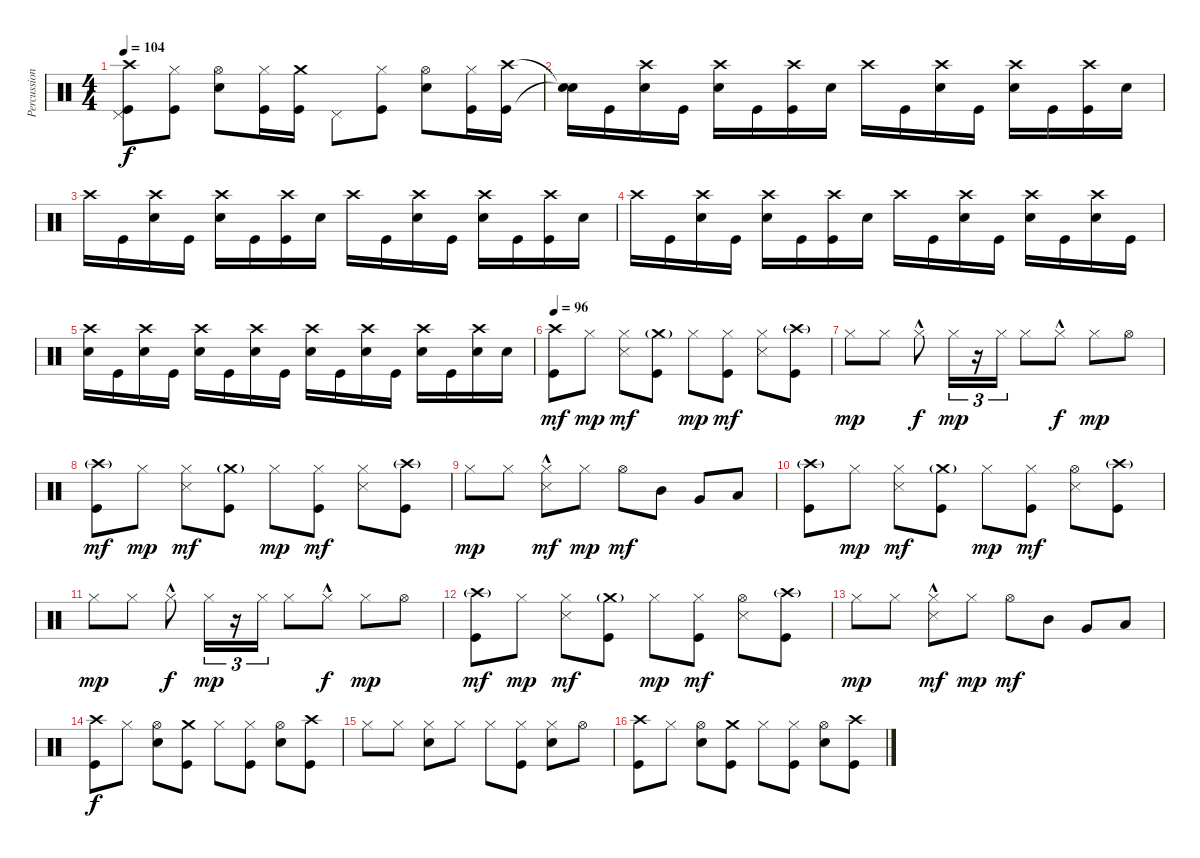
\track ("Percussion" "Percussion") {instrument percussion}
\staff {score}
\articulation defaults
\ts (4 4)
\tempo 104
\clef neutral
\ks c
("Crash high (hit)"{t} "Pedal Hi-Hat (hit)" "Kick (hit)"{t}).8{dy f} ("Hi-Hat (closed)" "Kick (hit)").8 ("Hi-Hat (open)" "Snare (hit) 2").8 ("Hi-Hat (closed)" "Kick (hit)").16 ("Crash medium (hit)" "Kick (hit)").16 "Pedal Hi-Hat (hit)".8 ("Hi-Hat (closed)" "Kick (hit)").8 ("Hi-Hat (open)" "Snare (hit) 2").8 ("Hi-Hat (closed)" "Kick (hit)").16 ("Crash high (hit)" "Kick (hit)").16 |
("Snare (hit)"{t} "Snare (hit)"{t}).16 "Kick (hit)".16 ("Crash high (hit)" "Snare (hit) 2").16 "Kick (hit)".16 ("Crash high (hit)" "Snare (hit) 2").16 "Kick (hit)".16 ("Crash high (hit)" "Kick (hit)").16 "Snare (hit) 2".16 "Crash high (hit)".16 "Kick (hit)".16 ("Crash high (hit)" "Snare (hit) 2").16 "Kick (hit)".16 ("Crash high (hit)" "Snare (hit) 2").16 "Kick (hit)".16 ("Crash high (hit)" "Kick (hit)").16 "Snare (hit) 2".16 |
"Crash high (hit)".16 "Kick (hit)".16 ("Crash high (hit)" "Snare (hit) 2").16 "Kick (hit)".16 ("Crash high (hit)" "Snare (hit) 2").16 "Kick (hit)".16 ("Crash high (hit)" "Kick (hit)").16 "Snare (hit) 2".16 "Crash high (hit)".16 "Kick (hit)".16 ("Crash high (hit)" "Snare (hit) 2").16 "Kick (hit)".16 ("Crash high (hit)" "Snare (hit) 2").16 "Kick (hit)".16 ("Crash high (hit)" "Kick (hit)").16 "Snare (hit) 2".16 |
"Crash high (hit)".16 "Kick (hit)".16 ("Crash high (hit)" "Snare (hit) 2").16 "Kick (hit)".16 ("Crash high (hit)" "Snare (hit) 2").16 "Kick (hit)".16 ("Crash high (hit)" "Kick (hit)").16 "Snare (hit) 2".16 "Crash high (hit)".16 "Kick (hit)".16 ("Crash high (hit)" "Snare (hit) 2").16 "Kick (hit)".16 ("Crash high (hit)" "Snare (hit) 2").16 "Kick (hit)".16 ("Crash high (hit)" "Snare (hit) 2").16 "Kick (hit)".16 |
("Crash high (hit)" "Snare (hit) 2").16 "Kick (hit)".16 ("Crash high (hit)" "Snare (hit) 2").16 "Kick (hit)".16 ("Crash high (hit)" "Snare (hit) 2").16 "Kick (hit)".16 ("Crash high (hit)" "Snare (hit) 2").16 "Kick (hit)".16 ("Crash high (hit)" "Snare (hit) 2").16 "Kick (hit)".16 ("Crash high (hit)" "Snare (hit) 2").16 "Kick (hit)".16 ("Crash high (hit)" "Snare (hit) 2").16 "Kick (hit)".16 ("Crash high (hit)" "Snare (hit) 2").16 "Snare (hit) 2".16 |
\tempo 96
("Crash high (hit)" "Kick (hit)").8{dy mf} "Hi-Hat (closed)".8{dy mp} ("Hi-Hat (closed)" "Snare (side stick) 3").8{dy mf} ("Crash medium (hit)"{g} "Kick (hit)").8 "Hi-Hat (closed)".8{dy mp} ("Hi-Hat (closed)" "Kick (hit)").8{dy mf} ("Hi-Hat (closed)" "Snare (side stick) 3").8 ("Crash high (hit)"{g} "Kick (hit)").8 |
"Hi-Hat (closed)".8{dy mp} "Hi-Hat (closed)".8 "Hi-Hat (closed)"{hac}.8{dy f} "Hi-Hat (closed)".16{tu (3 2) dy mp} r.16{tu (3 2)} "Hi-Hat (closed)".16{tu (3 2)} "Hi-Hat (closed)".8 "Hi-Hat (closed)"{hac}.8{dy f} "Hi-Hat (closed)".8{dy mp} "Hi-Hat (open)".8 |
("Crash high (hit)"{g} "Kick (hit)").8{dy mf} "Hi-Hat (closed)".8{dy mp} ("Hi-Hat (closed)" "Snare (side stick) 3").8{dy mf} ("Crash medium (hit)"{g} "Kick (hit)").8 "Hi-Hat (closed)".8{dy mp} ("Hi-Hat (closed)" "Kick (hit)").8{dy mf} ("Hi-Hat (closed)" "Snare (side stick) 3").8 ("Crash high (hit)"{g} "Kick (hit)").8 |
"Hi-Hat (closed)".8{dy mp} "Hi-Hat (closed)".8 ("Hi-Hat (closed)"{hac} "Snare (side stick) 3").8{dy mf} "Hi-Hat (closed)".8{dy mp} "Hi-Hat (open)".8{dy mf} "Mid Tom (hit)".8 "Very Low Tom (hit)".8 "Low Floor Tom (hit)".8 |
("Crash high (hit)"{g} "Kick (hit)").8 "Hi-Hat (closed)".8{dy mp} ("Hi-Hat (closed)" "Snare (side stick) 3").8{dy mf} ("Crash medium (hit)"{g} "Kick (hit)").8 "Hi-Hat (closed)".8{dy mp} ("Hi-Hat (closed)" "Kick (hit)").8{dy mf} ("Hi-Hat (open)" "Snare (side stick) 3").8 ("Crash high (hit)"{g} "Kick (hit)").8 |
"Hi-Hat (closed)".8{dy mp} "Hi-Hat (closed)".8 "Hi-Hat (closed)"{hac}.8{dy f} "Hi-Hat (closed)".16{tu (3 2) dy mp} r.16{tu (3 2)} "Hi-Hat (closed)".16{tu (3 2)} "Hi-Hat (closed)".8 "Hi-Hat (closed)"{hac}.8{dy f} "Hi-Hat (closed)".8{dy mp} "Hi-Hat (open)".8 |
("Crash high (hit)"{g} "Kick (hit)").8{dy mf} "Hi-Hat (closed)".8{dy mp} ("Hi-Hat (closed)" "Snare (side stick) 3").8{dy mf} ("Crash medium (hit)"{g} "Kick (hit)").8 "Hi-Hat (closed)".8{dy mp} ("Hi-Hat (closed)" "Kick (hit)").8{dy mf} ("Hi-Hat (open)" "Snare (side stick) 3").8 ("Crash high (hit)"{g} "Kick (hit)").8 |
"Hi-Hat (closed)".8{dy mp} "Hi-Hat (closed)".8 ("Hi-Hat (closed)"{hac} "Snare (side stick) 3").8{dy mf} "Hi-Hat (closed)".8{dy mp} "Hi-Hat (open)".8{dy mf} "Mid Tom (hit)".8 "Very Low Tom (hit)".8 "Low Floor Tom (hit)".8 |
("Crash high (hit)" "Kick (hit)").8{dy f} "Hi-Hat (closed)".8 ("Hi-Hat (open)" "Snare (hit) 2").8 ("Crash medium (hit)" "Kick (hit)").8 "Hi-Hat (closed)".8 ("Hi-Hat (closed)" "Kick (hit)").8 ("Hi-Hat (open)" "Snare (hit) 2").8 ("Crash high (hit)" "Kick (hit)").8 |
"Hi-Hat (closed)".8 "Hi-Hat (closed)".8 ("Hi-Hat (closed)" "Snare (hit) 2").8 "Hi-Hat (closed)".8 "Hi-Hat (closed)".8 ("Hi-Hat (closed)" "Kick (hit)").8 ("Hi-Hat (closed)" "Snare (hit) 2").8 "Hi-Hat (open)".8 |
("Crash high (hit)" "Kick (hit)").8 "Hi-Hat (closed)".8 ("Hi-Hat (open)" "Snare (hit) 2").8 ("Crash medium (hit)" "Kick (hit)").8 "Hi-Hat (closed)".8 ("Hi-Hat (closed)" "Kick (hit)").8 ("Hi-Hat (open)" "Snare (hit) 2").8 ("Crash high (hit)" "Kick (hit)").8
